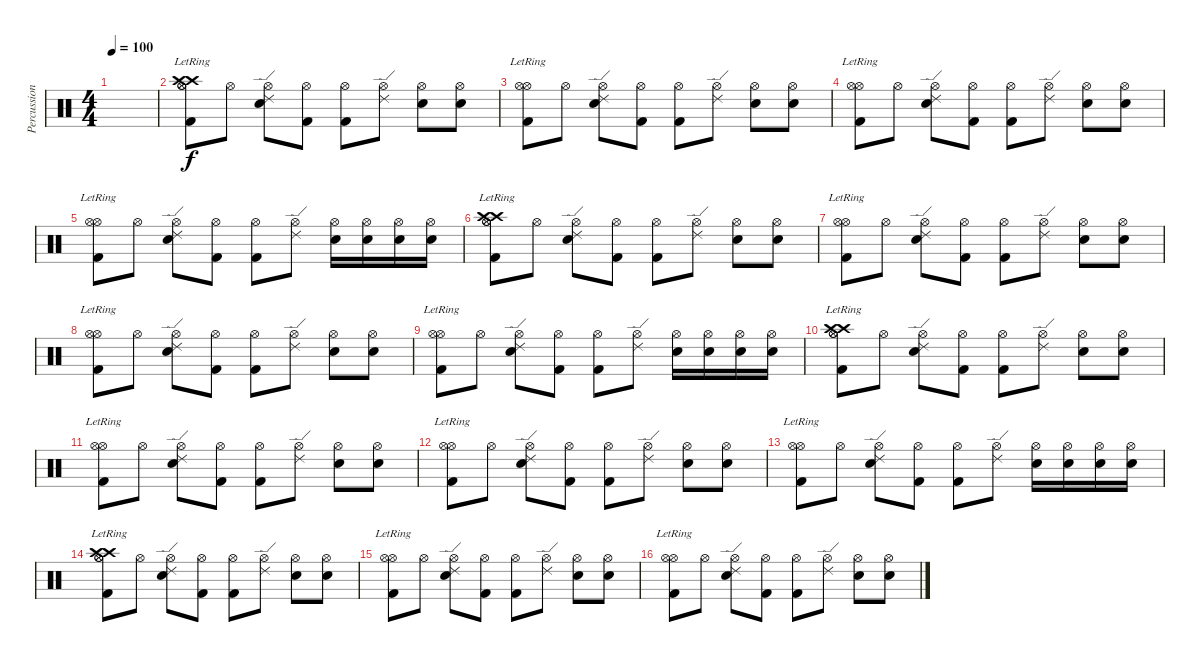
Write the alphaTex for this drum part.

\track ("Percussion" "Percussion") {instrument percussion}
\staff {score}
\articulation defaults
\ts (4 4)
\tempo 100
\clef neutral
\ks c
|
("Crash high (hit)"{lr} "Hi-Hat (open)" "Kick (hit) 2"{lr} "Hi-Hat (open)"{lr} "Crash high (hit)"{lr}).8 "Hi-Hat (open)".8 ("Ride (edge) 2" "Hi-Hat (open)" "Electric Snare (hit)").8 ("Hi-Hat (open)" "Kick (hit) 2").8 ("Hi-Hat (open)" "Kick (hit) 2").8 ("Ride (edge) 2" "Hi-Hat (open)").8 ("Hi-Hat (open)" "Electric Snare (hit)").8 ("Hi-Hat (open)" "Electric Snare (hit)").8 |
("Hi-Hat (open)" "Kick (hit) 2"{lr} "Hi-Hat (open)"{lr}).8 "Hi-Hat (open)".8 ("Ride (edge) 2" "Hi-Hat (open)" "Electric Snare (hit)").8 ("Hi-Hat (open)" "Kick (hit) 2").8 ("Hi-Hat (open)" "Kick (hit) 2").8 ("Ride (edge) 2" "Hi-Hat (open)").8 ("Hi-Hat (open)" "Electric Snare (hit)").8 ("Hi-Hat (open)" "Electric Snare (hit)").8 |
("Hi-Hat (open)" "Kick (hit) 2"{lr} "Hi-Hat (open)"{lr}).8 "Hi-Hat (open)".8 ("Ride (edge) 2" "Hi-Hat (open)" "Electric Snare (hit)").8 ("Hi-Hat (open)" "Kick (hit) 2").8 ("Hi-Hat (open)" "Kick (hit) 2").8 ("Ride (edge) 2" "Hi-Hat (open)").8 ("Hi-Hat (open)" "Electric Snare (hit)").8 ("Hi-Hat (open)" "Electric Snare (hit)").8 |
("Hi-Hat (open)" "Kick (hit) 2"{lr} "Hi-Hat (open)"{lr}).8 "Hi-Hat (open)".8 ("Ride (edge) 2" "Hi-Hat (open)" "Electric Snare (hit)").8 ("Hi-Hat (open)" "Kick (hit) 2").8 ("Hi-Hat (open)" "Kick (hit) 2").8 ("Ride (edge) 2" "Hi-Hat (open)").8 ("Hi-Hat (open)" "Electric Snare (hit)").16 ("Hi-Hat (open)" "Electric Snare (hit)").16 ("Hi-Hat (open)" "Electric Snare (hit)").16 ("Hi-Hat (open)" "Electric Snare (hit)").16 |
("Crash high (hit)"{lr} "Hi-Hat (open)" "Kick (hit) 2"{lr} "Hi-Hat (open)"{lr} "Crash high (hit)"{lr}).8 "Hi-Hat (open)".8 ("Ride (edge) 2" "Hi-Hat (open)" "Electric Snare (hit)").8 ("Hi-Hat (open)" "Kick (hit) 2").8 ("Hi-Hat (open)" "Kick (hit) 2").8 ("Ride (edge) 2" "Hi-Hat (open)").8 ("Hi-Hat (open)" "Electric Snare (hit)").8 ("Hi-Hat (open)" "Electric Snare (hit)").8 |
("Hi-Hat (open)" "Kick (hit) 2"{lr} "Hi-Hat (open)"{lr}).8 "Hi-Hat (open)".8 ("Ride (edge) 2" "Hi-Hat (open)" "Electric Snare (hit)").8 ("Hi-Hat (open)" "Kick (hit) 2").8 ("Hi-Hat (open)" "Kick (hit) 2").8 ("Ride (edge) 2" "Hi-Hat (open)").8 ("Hi-Hat (open)" "Electric Snare (hit)").8 ("Hi-Hat (open)" "Electric Snare (hit)").8 |
("Hi-Hat (open)" "Kick (hit) 2"{lr} "Hi-Hat (open)"{lr}).8 "Hi-Hat (open)".8 ("Ride (edge) 2" "Hi-Hat (open)" "Electric Snare (hit)").8 ("Hi-Hat (open)" "Kick (hit) 2").8 ("Hi-Hat (open)" "Kick (hit) 2").8 ("Ride (edge) 2" "Hi-Hat (open)").8 ("Hi-Hat (open)" "Electric Snare (hit)").8 ("Hi-Hat (open)" "Electric Snare (hit)").8 |
("Hi-Hat (open)" "Kick (hit) 2"{lr} "Hi-Hat (open)"{lr}).8 "Hi-Hat (open)".8 ("Ride (edge) 2" "Hi-Hat (open)" "Electric Snare (hit)").8 ("Hi-Hat (open)" "Kick (hit) 2").8 ("Hi-Hat (open)" "Kick (hit) 2").8 ("Ride (edge) 2" "Hi-Hat (open)").8 ("Hi-Hat (open)" "Electric Snare (hit)").16 ("Hi-Hat (open)" "Electric Snare (hit)").16 ("Hi-Hat (open)" "Electric Snare (hit)").16 ("Hi-Hat (open)" "Electric Snare (hit)").16 |
("Crash high (hit)"{lr} "Hi-Hat (open)" "Kick (hit) 2"{lr} "Hi-Hat (open)"{lr} "Crash high (hit)"{lr}).8 "Hi-Hat (open)".8 ("Ride (edge) 2" "Hi-Hat (open)" "Electric Snare (hit)").8 ("Hi-Hat (open)" "Kick (hit) 2").8 ("Hi-Hat (open)" "Kick (hit) 2").8 ("Ride (edge) 2" "Hi-Hat (open)").8 ("Hi-Hat (open)" "Electric Snare (hit)").8 ("Hi-Hat (open)" "Electric Snare (hit)").8 |
("Hi-Hat (open)" "Kick (hit) 2"{lr} "Hi-Hat (open)"{lr}).8 "Hi-Hat (open)".8 ("Ride (edge) 2" "Hi-Hat (open)" "Electric Snare (hit)").8 ("Hi-Hat (open)" "Kick (hit) 2").8 ("Hi-Hat (open)" "Kick (hit) 2").8 ("Ride (edge) 2" "Hi-Hat (open)").8 ("Hi-Hat (open)" "Electric Snare (hit)").8 ("Hi-Hat (open)" "Electric Snare (hit)").8 |
("Hi-Hat (open)" "Kick (hit) 2"{lr} "Hi-Hat (open)"{lr}).8 "Hi-Hat (open)".8 ("Ride (edge) 2" "Hi-Hat (open)" "Electric Snare (hit)").8 ("Hi-Hat (open)" "Kick (hit) 2").8 ("Hi-Hat (open)" "Kick (hit) 2").8 ("Ride (edge) 2" "Hi-Hat (open)").8 ("Hi-Hat (open)" "Electric Snare (hit)").8 ("Hi-Hat (open)" "Electric Snare (hit)").8 |
("Hi-Hat (open)" "Kick (hit) 2"{lr} "Hi-Hat (open)"{lr}).8 "Hi-Hat (open)".8 ("Ride (edge) 2" "Hi-Hat (open)" "Electric Snare (hit)").8 ("Hi-Hat (open)" "Kick (hit) 2").8 ("Hi-Hat (open)" "Kick (hit) 2").8 ("Ride (edge) 2" "Hi-Hat (open)").8 ("Hi-Hat (open)" "Electric Snare (hit)").16 ("Hi-Hat (open)" "Electric Snare (hit)").16 ("Hi-Hat (open)" "Electric Snare (hit)").16 ("Hi-Hat (open)" "Electric Snare (hit)").16 |
("Crash high (hit)"{lr} "Hi-Hat (open)" "Kick (hit) 2"{lr} "Hi-Hat (open)"{lr} "Crash high (hit)"{lr}).8 "Hi-Hat (open)".8 ("Ride (edge) 2" "Hi-Hat (open)" "Electric Snare (hit)").8 ("Hi-Hat (open)" "Kick (hit) 2").8 ("Hi-Hat (open)" "Kick (hit) 2").8 ("Ride (edge) 2" "Hi-Hat (open)").8 ("Hi-Hat (open)" "Electric Snare (hit)").8 ("Hi-Hat (open)" "Electric Snare (hit)").8 |
("Hi-Hat (open)" "Kick (hit) 2"{lr} "Hi-Hat (open)"{lr}).8 "Hi-Hat (open)".8 ("Ride (edge) 2" "Hi-Hat (open)" "Electric Snare (hit)").8 ("Hi-Hat (open)" "Kick (hit) 2").8 ("Hi-Hat (open)" "Kick (hit) 2").8 ("Ride (edge) 2" "Hi-Hat (open)").8 ("Hi-Hat (open)" "Electric Snare (hit)").8 ("Hi-Hat (open)" "Electric Snare (hit)").8 |
("Hi-Hat (open)" "Kick (hit) 2"{lr} "Hi-Hat (open)"{lr}).8 "Hi-Hat (open)".8 ("Ride (edge) 2" "Hi-Hat (open)" "Electric Snare (hit)").8 ("Hi-Hat (open)" "Kick (hit) 2").8 ("Hi-Hat (open)" "Kick (hit) 2").8 ("Ride (edge) 2" "Hi-Hat (open)").8 ("Hi-Hat (open)" "Electric Snare (hit)").8 ("Hi-Hat (open)" "Electric Snare (hit)").8
